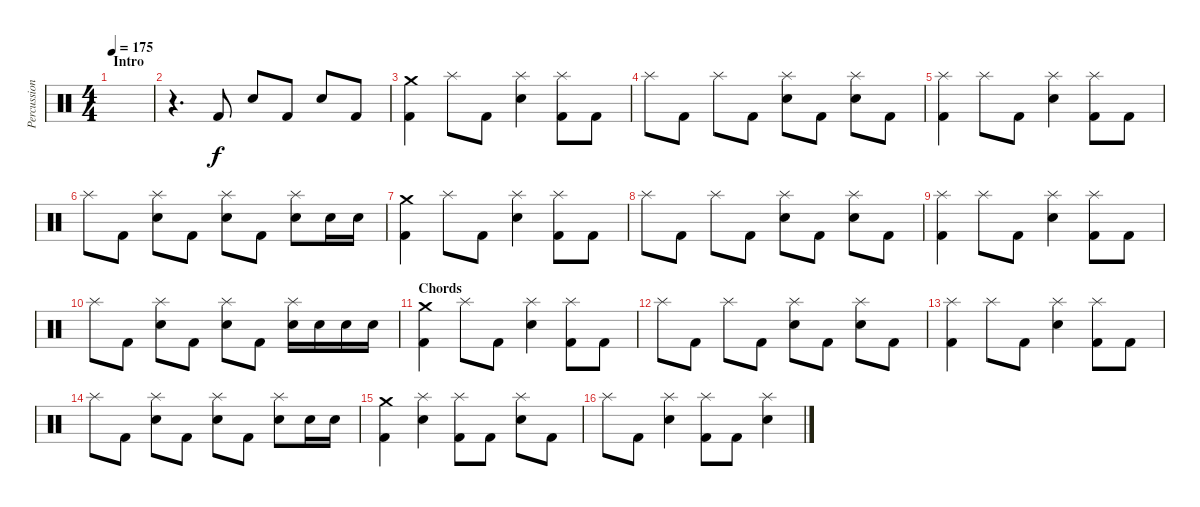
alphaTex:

\track ("Percussion" "Percussion") {instrument percussion}
\staff {score}
\articulation defaults
\ts (4 4)
\section ("" "Intro")
\tempo 175
\clef neutral
\ks c
|
r.4{d} "Kick (hit) 2".8 "Electric Snare (hit)".8 "Kick (hit) 2".8 "Electric Snare (hit)".8 "Kick (hit) 2".8 |
("Crash medium (hit)" "Kick (hit) 2").4 "Splash (hit)".8 "Kick (hit) 2".8 ("Splash (hit)" "Electric Snare (hit)").4 ("Splash (hit)" "Kick (hit) 2").8 "Kick (hit) 2".8 |
"Splash (hit)".8 "Kick (hit) 2".8 "Splash (hit)".8 "Kick (hit) 2".8 ("Splash (hit)" "Electric Snare (hit)").8 "Kick (hit) 2".8 ("Splash (hit)" "Electric Snare (hit)").8 "Kick (hit) 2".8 |
("Splash (hit)" "Kick (hit) 2").4 "Splash (hit)".8 "Kick (hit) 2".8 ("Splash (hit)" "Electric Snare (hit)").4 ("Splash (hit)" "Kick (hit) 2").8 "Kick (hit) 2".8 |
"Splash (hit)".8 "Kick (hit) 2".8 ("Splash (hit)" "Electric Snare (hit)").8 "Kick (hit) 2".8 ("Splash (hit)" "Electric Snare (hit)").8 "Kick (hit) 2".8 ("Splash (hit)" "Electric Snare (hit)").8 "Electric Snare (hit)".16 "Electric Snare (hit)".16 |
("Crash medium (hit)" "Kick (hit) 2").4 "Splash (hit)".8 "Kick (hit) 2".8 ("Splash (hit)" "Electric Snare (hit)").4 ("Splash (hit)" "Kick (hit) 2").8 "Kick (hit) 2".8 |
"Splash (hit)".8 "Kick (hit) 2".8 "Splash (hit)".8 "Kick (hit) 2".8 ("Splash (hit)" "Electric Snare (hit)").8 "Kick (hit) 2".8 ("Splash (hit)" "Electric Snare (hit)").8 "Kick (hit) 2".8 |
("Splash (hit)" "Kick (hit) 2").4 "Splash (hit)".8 "Kick (hit) 2".8 ("Splash (hit)" "Electric Snare (hit)").4 ("Splash (hit)" "Kick (hit) 2").8 "Kick (hit) 2".8 |
"Splash (hit)".8 "Kick (hit) 2".8 ("Splash (hit)" "Electric Snare (hit)").8 "Kick (hit) 2".8 ("Splash (hit)" "Electric Snare (hit)").8 "Kick (hit) 2".8 ("Splash (hit)" "Electric Snare (hit)").16 "Electric Snare (hit)".16 "Electric Snare (hit)".16 "Electric Snare (hit)".16 |
\section ("" "Chords")
("Crash medium (hit)" "Kick (hit) 2").4 "Splash (hit)".8 "Kick (hit) 2".8 ("Splash (hit)" "Electric Snare (hit)").4 ("Splash (hit)" "Kick (hit) 2").8 "Kick (hit) 2".8 |
"Splash (hit)".8 "Kick (hit) 2".8 "Splash (hit)".8 "Kick (hit) 2".8 ("Splash (hit)" "Electric Snare (hit)").8 "Kick (hit) 2".8 ("Splash (hit)" "Electric Snare (hit)").8 "Kick (hit) 2".8 |
("Splash (hit)" "Kick (hit) 2").4 "Splash (hit)".8 "Kick (hit) 2".8 ("Splash (hit)" "Electric Snare (hit)").4 ("Splash (hit)" "Kick (hit) 2").8 "Kick (hit) 2".8 |
"Splash (hit)".8 "Kick (hit) 2".8 ("Splash (hit)" "Electric Snare (hit)").8 "Kick (hit) 2".8 ("Splash (hit)" "Electric Snare (hit)").8 "Kick (hit) 2".8 ("Splash (hit)" "Electric Snare (hit)").8 "Electric Snare (hit)".16 "Electric Snare (hit)".16 |
("Crash medium (hit)" "Kick (hit) 2").4 ("Splash (hit)" "Electric Snare (hit)").4 ("Splash (hit)" "Kick (hit) 2").8 "Kick (hit) 2".8 ("Splash (hit)" "Electric Snare (hit)").8 "Kick (hit) 2".8 |
"Splash (hit)".8 "Kick (hit) 2".8 ("Splash (hit)" "Electric Snare (hit)").4 ("Splash (hit)" "Kick (hit) 2").8 "Kick (hit) 2".8 ("Splash (hit)" "Electric Snare (hit)").4
